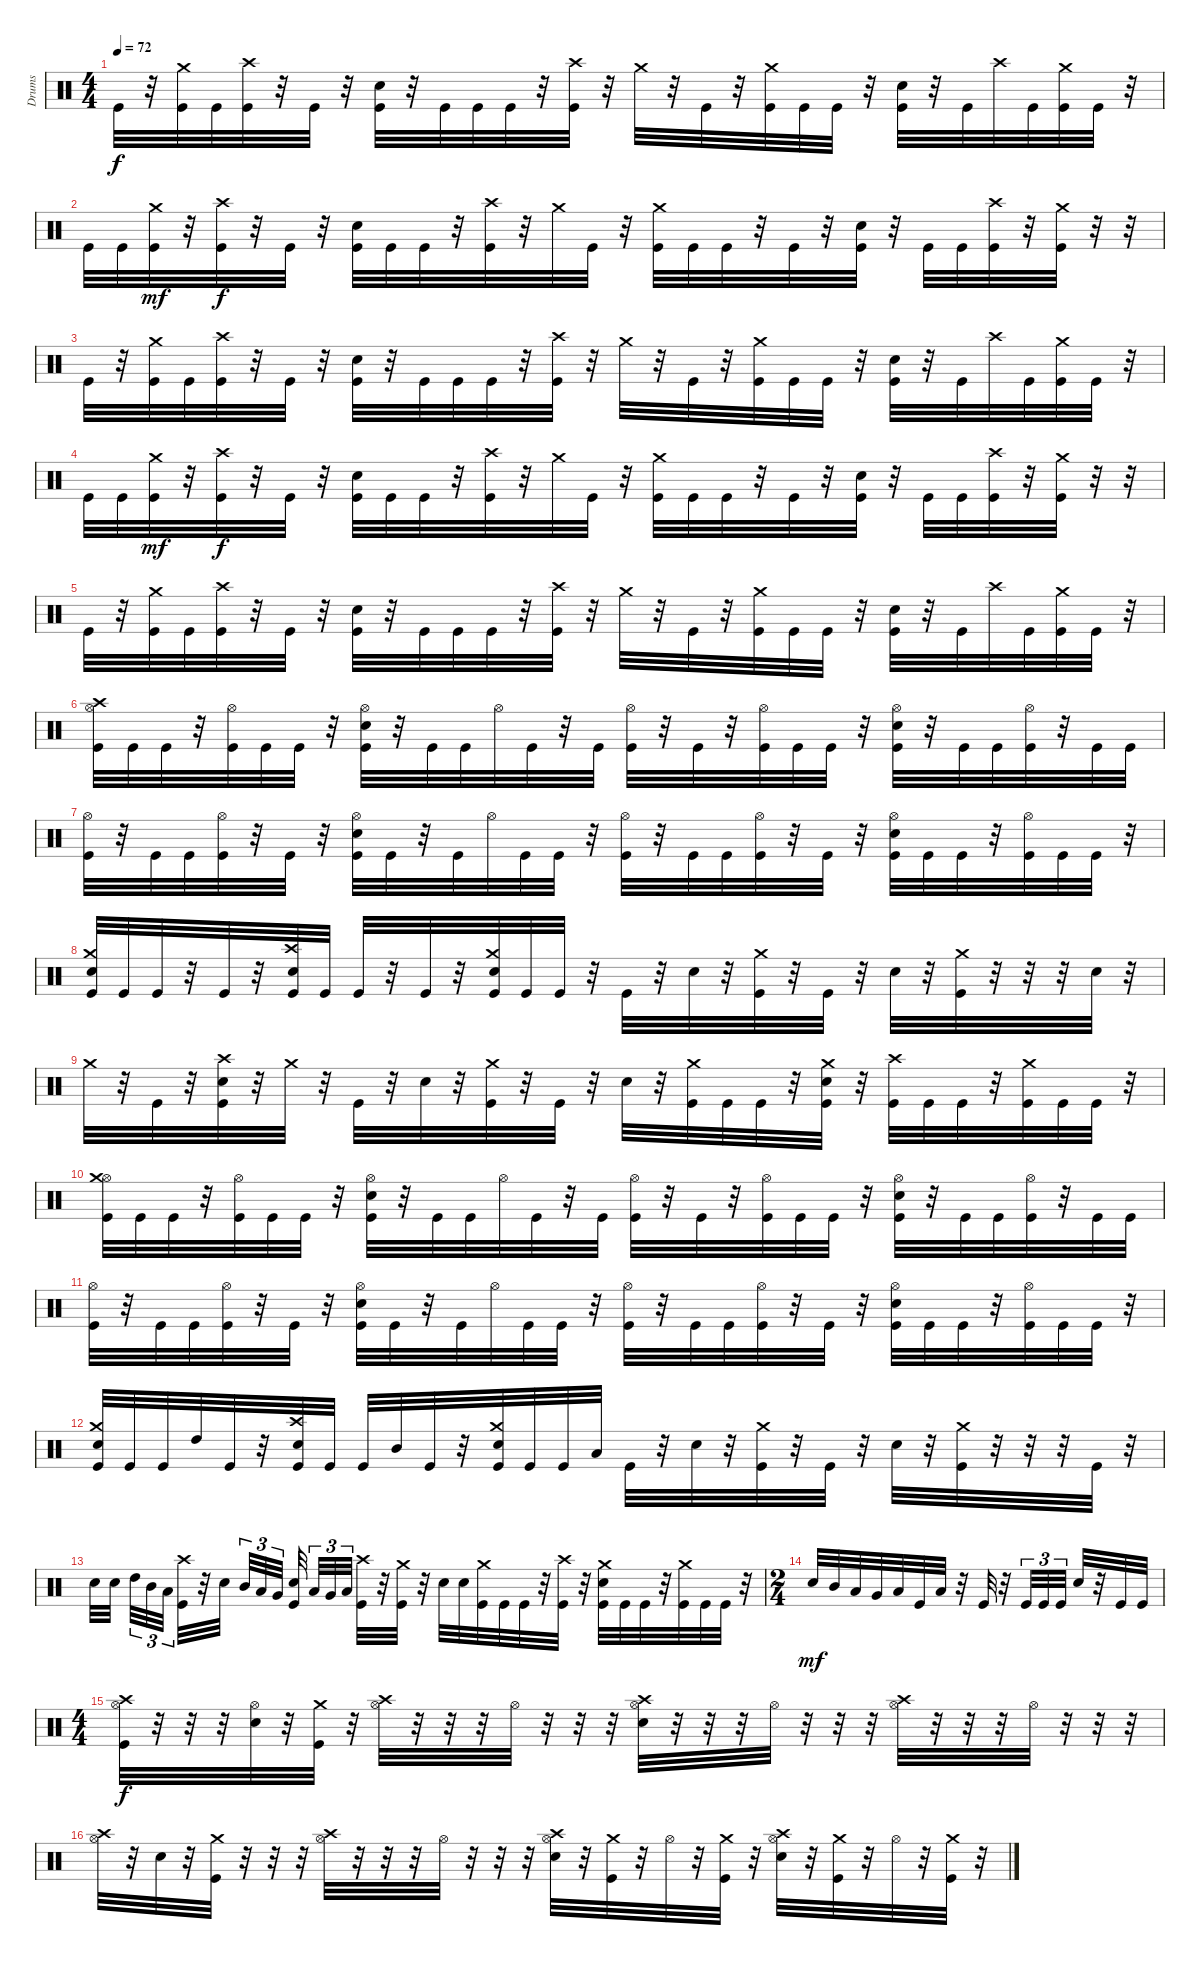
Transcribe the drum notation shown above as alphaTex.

\track ("Drums" "Drums") {instrument percussion}
\staff {score}
\articulation defaults
\ts (4 4)
\tempo 72
\clef neutral
\ks c "Kick (hit)".32{dy f}
r.32 ("Crash medium (hit)" "Kick (hit)").32 "Kick (hit)".32 ("Crash high (hit)" "Kick (hit)").32 r.32 "Kick (hit)".32 r.32 ("Electric Snare (hit)" "Kick (hit)").32 r.32 "Kick (hit)".32 "Kick (hit)".32 "Kick (hit)".32 r.32 ("Crash high (hit)" "Kick (hit)").32 r.32 "Crash medium (hit)".32 r.32 "Kick (hit)".32 r.32 ("Crash medium (hit)" "Kick (hit)").32 "Kick (hit)".32 "Kick (hit)".32 r.32 ("Electric Snare (hit)" "Kick (hit)").32 r.32 "Kick (hit)".32 "Crash high (hit)".32 "Kick (hit)".32 ("Crash medium (hit)" "Kick (hit)").32 "Kick (hit)".32 r.32 |
"Kick (hit)".32 "Kick (hit)".32 ("Crash medium (hit)" "Kick (hit)").32{dy mf} r.32 ("Crash high (hit)" "Kick (hit)").32{dy f} r.32 "Kick (hit)".32 r.32 ("Electric Snare (hit)" "Kick (hit)").32 "Kick (hit)".32 "Kick (hit)".32 r.32 ("Crash high (hit)" "Kick (hit)").32 r.32 "Crash medium (hit)".32 "Kick (hit)".32 r.32 ("Crash medium (hit)" "Kick (hit)").32 "Kick (hit)".32 "Kick (hit)".32 r.32 "Kick (hit)".32 r.32 ("Electric Snare (hit)" "Kick (hit)").32 r.32 "Kick (hit)".32 "Kick (hit)".32 ("Crash high (hit)" "Kick (hit)").32 r.32 ("Crash medium (hit)" "Kick (hit)").32 r.32 r.32 |
"Kick (hit)".32 r.32 ("Crash medium (hit)" "Kick (hit)").32 "Kick (hit)".32 ("Crash high (hit)" "Kick (hit)").32 r.32 "Kick (hit)".32 r.32 ("Electric Snare (hit)" "Kick (hit)").32 r.32 "Kick (hit)".32 "Kick (hit)".32 "Kick (hit)".32 r.32 ("Crash high (hit)" "Kick (hit)").32 r.32 "Crash medium (hit)".32 r.32 "Kick (hit)".32 r.32 ("Crash medium (hit)" "Kick (hit)").32 "Kick (hit)".32 "Kick (hit)".32 r.32 ("Electric Snare (hit)" "Kick (hit)").32 r.32 "Kick (hit)".32 "Crash high (hit)".32 "Kick (hit)".32 ("Crash medium (hit)" "Kick (hit)").32 "Kick (hit)".32 r.32 |
"Kick (hit)".32 "Kick (hit)".32 ("Crash medium (hit)" "Kick (hit)").32{dy mf} r.32 ("Crash high (hit)" "Kick (hit)").32{dy f} r.32 "Kick (hit)".32 r.32 ("Electric Snare (hit)" "Kick (hit)").32 "Kick (hit)".32 "Kick (hit)".32 r.32 ("Crash high (hit)" "Kick (hit)").32 r.32 "Crash medium (hit)".32 "Kick (hit)".32 r.32 ("Crash medium (hit)" "Kick (hit)").32 "Kick (hit)".32 "Kick (hit)".32 r.32 "Kick (hit)".32 r.32 ("Electric Snare (hit)" "Kick (hit)").32 r.32 "Kick (hit)".32 "Kick (hit)".32 ("Crash high (hit)" "Kick (hit)").32 r.32 ("Crash medium (hit)" "Kick (hit)").32 r.32 r.32 |
"Kick (hit)".32 r.32 ("Crash medium (hit)" "Kick (hit)").32 "Kick (hit)".32 ("Crash high (hit)" "Kick (hit)").32 r.32 "Kick (hit)".32 r.32 ("Electric Snare (hit)" "Kick (hit)").32 r.32 "Kick (hit)".32 "Kick (hit)".32 "Kick (hit)".32 r.32 ("Crash high (hit)" "Kick (hit)").32 r.32 "Crash medium (hit)".32 r.32 "Kick (hit)".32 r.32 ("Crash medium (hit)" "Kick (hit)").32 "Kick (hit)".32 "Kick (hit)".32 r.32 ("Electric Snare (hit)" "Kick (hit)").32 r.32 "Kick (hit)".32 "Crash high (hit)".32 "Kick (hit)".32 ("Crash medium (hit)" "Kick (hit)").32 "Kick (hit)".32 r.32 |
("Hi-Hat (open)" "Crash high (hit)" "Kick (hit)").32 "Kick (hit)".32 "Kick (hit)".32 r.32 ("Hi-Hat (open)" "Kick (hit)").32 "Kick (hit)".32 "Kick (hit)".32 r.32 ("Hi-Hat (open)" "Electric Snare (hit)" "Kick (hit)").32 r.32 "Kick (hit)".32 "Kick (hit)".32 "Hi-Hat (open)".32 "Kick (hit)".32 r.32 "Kick (hit)".32 ("Hi-Hat (open)" "Kick (hit)").32 r.32 "Kick (hit)".32 r.32 ("Hi-Hat (open)" "Kick (hit)").32 "Kick (hit)".32 "Kick (hit)".32 r.32 ("Hi-Hat (open)" "Electric Snare (hit)" "Kick (hit)").32 r.32 "Kick (hit)".32 "Kick (hit)".32 ("Hi-Hat (open)" "Kick (hit)").32 r.32 "Kick (hit)".32 "Kick (hit)".32 |
("Hi-Hat (open)" "Kick (hit)").32 r.32 "Kick (hit)".32 "Kick (hit)".32 ("Hi-Hat (open)" "Kick (hit)").32 r.32 "Kick (hit)".32 r.32 ("Hi-Hat (open)" "Electric Snare (hit)" "Kick (hit)").32 "Kick (hit)".32 r.32 "Kick (hit)".32 "Hi-Hat (open)".32 "Kick (hit)".32 "Kick (hit)".32 r.32 ("Hi-Hat (open)" "Kick (hit)").32 r.32 "Kick (hit)".32 "Kick (hit)".32 ("Hi-Hat (open)" "Kick (hit)").32 r.32 "Kick (hit)".32 r.32 ("Hi-Hat (open)" "Electric Snare (hit)" "Kick (hit)").32 "Kick (hit)".32 "Kick (hit)".32 r.32 ("Hi-Hat (open)" "Kick (hit)").32 "Kick (hit)".32 "Kick (hit)".32 r.32 |
("Crash medium (hit)" "Electric Snare (hit)" "Kick (hit)").32 "Kick (hit)".32 "Kick (hit)".32 r.32 "Kick (hit)".32 r.32 ("Crash high (hit)" "Electric Snare (hit)" "Kick (hit)").32 "Kick (hit)".32 "Kick (hit)".32 r.32 "Kick (hit)".32 r.32 ("Crash medium (hit)" "Electric Snare (hit)" "Kick (hit)").32 "Kick (hit)".32 "Kick (hit)".32 r.32 "Kick (hit)".32 r.32 "Electric Snare (hit)".32 r.32 ("Crash medium (hit)" "Kick (hit)").32 r.32 "Kick (hit)".32 r.32 "Electric Snare (hit)".32 r.32 ("Crash medium (hit)" "Kick (hit)").32 r.32 r.32 r.32 "Electric Snare (hit)".32 r.32 |
"Crash medium (hit)".32 r.32 "Kick (hit)".32 r.32 ("Crash high (hit)" "Electric Snare (hit)" "Kick (hit)").32 r.32 "Crash medium (hit)".32 r.32 "Kick (hit)".32 r.32 "Electric Snare (hit)".32 r.32 ("Crash medium (hit)" "Kick (hit)").32 r.32 "Kick (hit)".32 r.32 "Electric Snare (hit)".32 r.32 ("Crash medium (hit)" "Kick (hit)").32 "Kick (hit)".32 "Kick (hit)".32 r.32 ("Crash medium (hit)" "Electric Snare (hit)" "Kick (hit)").32 r.32 ("Crash high (hit)" "Kick (hit)").32 "Kick (hit)".32 "Kick (hit)".32 r.32 ("Crash medium (hit)" "Kick (hit)").32 "Kick (hit)".32 "Kick (hit)".32 r.32 |
("Hi-Hat (open)" "Crash medium (hit)" "Kick (hit)").32 "Kick (hit)".32 "Kick (hit)".32 r.32 ("Hi-Hat (open)" "Kick (hit)").32 "Kick (hit)".32 "Kick (hit)".32 r.32 ("Hi-Hat (open)" "Electric Snare (hit)" "Kick (hit)").32 r.32 "Kick (hit)".32 "Kick (hit)".32 "Hi-Hat (open)".32 "Kick (hit)".32 r.32 "Kick (hit)".32 ("Hi-Hat (open)" "Kick (hit)").32 r.32 "Kick (hit)".32 r.32 ("Hi-Hat (open)" "Kick (hit)").32 "Kick (hit)".32 "Kick (hit)".32 r.32 ("Hi-Hat (open)" "Electric Snare (hit)" "Kick (hit)").32 r.32 "Kick (hit)".32 "Kick (hit)".32 ("Hi-Hat (open)" "Kick (hit)").32 r.32 "Kick (hit)".32 "Kick (hit)".32 |
("Hi-Hat (open)" "Kick (hit)").32 r.32 "Kick (hit)".32 "Kick (hit)".32 ("Hi-Hat (open)" "Kick (hit)").32 r.32 "Kick (hit)".32 r.32 ("Hi-Hat (open)" "Electric Snare (hit)" "Kick (hit)").32 "Kick (hit)".32 r.32 "Kick (hit)".32 "Hi-Hat (open)".32 "Kick (hit)".32 "Kick (hit)".32 r.32 ("Hi-Hat (open)" "Kick (hit)").32 r.32 "Kick (hit)".32 "Kick (hit)".32 ("Hi-Hat (open)" "Kick (hit)").32 r.32 "Kick (hit)".32 r.32 ("Hi-Hat (open)" "Electric Snare (hit)" "Kick (hit)").32 "Kick (hit)".32 "Kick (hit)".32 r.32 ("Hi-Hat (open)" "Kick (hit)").32 "Kick (hit)".32 "Kick (hit)".32 r.32 |
("Crash medium (hit)" "Electric Snare (hit)" "Kick (hit)").32 "Kick (hit)".32 "Kick (hit)".32 "High Tom (hit)".32 "Kick (hit)".32 r.32 ("Crash high (hit)" "Electric Snare (hit)" "Kick (hit)").32 "Kick (hit)".32 "Kick (hit)".32 "Mid Tom (hit)".32 "Kick (hit)".32 r.32 ("Crash medium (hit)" "Electric Snare (hit)" "Kick (hit)").32 "Kick (hit)".32 "Kick (hit)".32 "Low Tom (hit)".32 "Kick (hit)".32 r.32 "Electric Snare (hit)".32 r.32 ("Crash medium (hit)" "Kick (hit)").32 r.32 "Kick (hit)".32 r.32 "Electric Snare (hit)".32 r.32 ("Crash medium (hit)" "Kick (hit)").32 r.32 r.32 r.32 "Kick (hit)".32 r.32 |
"Electric Snare (hit)".32 "Electric Snare (hit)".32{beam splitsecondary} "High Tom (hit)".32{tu (3 2)} "Mid Tom (hit)".32{tu (3 2)} "Low Tom (hit)".32{tu (3 2) beam splitsecondary} ("Crash high (hit)" "Kick (hit)").32 r.32 "Electric Snare (hit)".32{beam splitsecondary} "Mid Tom (hit)".32{tu (3 2)} "Low Tom (hit)".32{tu (3 2)} "Very Low Tom (hit)".32{tu (3 2) beam splitsecondary} ("Electric Snare (hit)" "Kick (hit)").32{beam splitsecondary} "Low Tom (hit)".32{tu (3 2)} "Very Low Tom (hit)".32{tu (3 2)} "Low Floor Tom (hit)".32{tu (3 2) beam splitsecondary} ("Crash high (hit)" "Kick (hit)").32 r.32 ("Crash medium (hit)" "Kick (hit)").32 r.32 "Electric Snare (hit)".32 "Electric Snare (hit)".32 ("Crash medium (hit)" "Kick (hit)").32 "Kick (hit)".32 "Kick (hit)".32 r.32 ("Crash high (hit)" "Kick (hit)").32 r.32 ("Crash medium (hit)" "Electric Snare (hit)" "Kick (hit)").32 "Kick (hit)".32 "Kick (hit)".32 r.32 ("Crash medium (hit)" "Kick (hit)").32 "Kick (hit)".32 "Kick (hit)".32 r.32 |
\ts (2 4)
"Electric Snare (hit)".32{dy mf} "Mid Tom (hit)".32 "Low Tom (hit)".32 "Very Low Tom (hit)".32 "Low Floor Tom (hit)".32 "Kick (hit)".32 "Low Tom (hit)".32 r.32 "Kick (hit)".32 r.32 "Kick (hit)".32{tu (3 2)} "Kick (hit)".32{tu (3 2)} "Kick (hit)".32{tu (3 2) beam splitsecondary} "Electric Snare (hit)".32 r.32 "Kick (hit)".32 "Kick (hit)".32 |
\ts (4 4)
("Hi-Hat (open)" "Crash high (hit)" "Kick (hit)").32{dy f} r.32 r.32 r.32 ("Hi-Hat (open)" "Electric Snare (hit)").32 r.32 ("Crash medium (hit)" "Kick (hit)").32 r.32 ("Hi-Hat (open)" "Crash high (hit)").32 r.32 r.32 r.32 "Hi-Hat (open)".32 r.32 r.32 r.32 ("Hi-Hat (open)" "Crash high (hit)" "Electric Snare (hit)").32 r.32 r.32 r.32 "Hi-Hat (open)".32 r.32 r.32 r.32 ("Hi-Hat (open)" "Crash high (hit)").32 r.32 r.32 r.32 "Hi-Hat (open)".32 r.32 r.32 r.32 |
("Hi-Hat (open)" "Crash high (hit)").32 r.32 "Electric Snare (hit)".32 r.32 ("Crash medium (hit)" "Kick (hit)").32 r.32 r.32 r.32 ("Hi-Hat (open)" "Crash high (hit)").32 r.32 r.32 r.32 "Hi-Hat (open)".32 r.32 r.32 r.32 ("Hi-Hat (open)" "Crash high (hit)" "Electric Snare (hit)").32 r.32 ("Crash medium (hit)" "Kick (hit)").32 r.32 "Hi-Hat (open)".32 r.32 ("Crash medium (hit)" "Kick (hit)").32 r.32 ("Hi-Hat (open)" "Crash high (hit)" "Electric Snare (hit)").32 r.32 ("Crash medium (hit)" "Kick (hit)").32 r.32 "Hi-Hat (open)".32 r.32 ("Crash medium (hit)" "Kick (hit)").32 r.32
